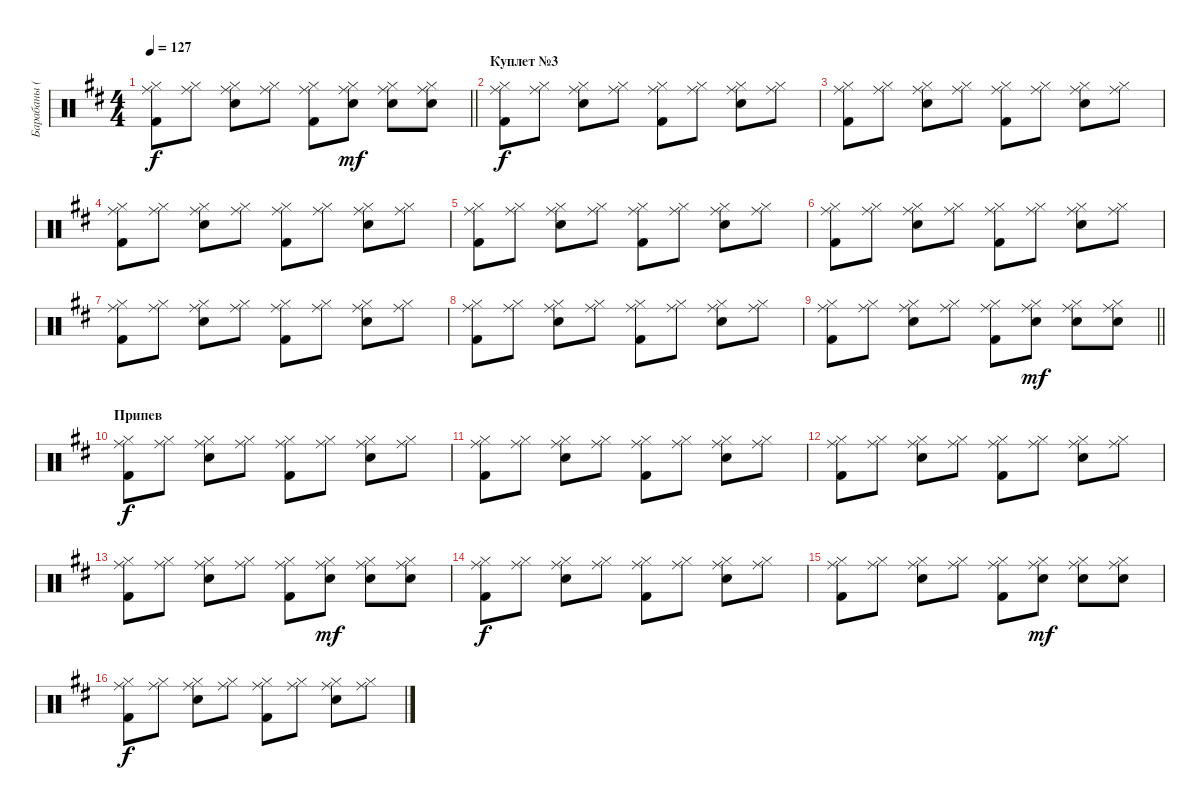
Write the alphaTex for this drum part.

\track ("Барабаны (Е.Летов)" "Барабаны (") {instrument percussion}
\staff {score}
\articulation defaults
\ts (4 4)
\tempo 127
\clef neutral
\barLineRight lightlight
\ks d
("Kick (hit) 2" "Ride (middle)" "Hi-Hat (closed)").8{dy f} ("Ride (middle)" "Hi-Hat (closed)").8 ("Snare (hit) 2" "Ride (middle)" "Hi-Hat (closed)").8 ("Ride (middle)" "Hi-Hat (closed)").8 ("Kick (hit) 2" "Ride (middle)" "Hi-Hat (closed)").8 ("Snare (hit) 2" "Ride (middle)" "Hi-Hat (closed)").8{dy mf} ("Snare (hit) 2" "Ride (middle)" "Hi-Hat (closed)").8 ("Snare (hit) 2" "Ride (middle)" "Hi-Hat (closed)").8 |
\section ("" "Куплет №3")
("Kick (hit) 2" "Ride (middle)" "Hi-Hat (closed)").8{dy f} ("Ride (middle)" "Hi-Hat (closed)").8 ("Snare (hit) 2" "Ride (middle)" "Hi-Hat (closed)").8 ("Ride (middle)" "Hi-Hat (closed)").8 ("Kick (hit) 2" "Ride (middle)" "Hi-Hat (closed)").8 ("Ride (middle)" "Hi-Hat (closed)").8 ("Snare (hit) 2" "Ride (middle)" "Hi-Hat (closed)").8 ("Ride (middle)" "Hi-Hat (closed)").8 |
("Kick (hit) 2" "Ride (middle)" "Hi-Hat (closed)").8 ("Ride (middle)" "Hi-Hat (closed)").8 ("Snare (hit) 2" "Ride (middle)" "Hi-Hat (closed)").8 ("Ride (middle)" "Hi-Hat (closed)").8 ("Kick (hit) 2" "Ride (middle)" "Hi-Hat (closed)").8 ("Ride (middle)" "Hi-Hat (closed)").8 ("Snare (hit) 2" "Ride (middle)" "Hi-Hat (closed)").8 ("Ride (middle)" "Hi-Hat (closed)").8 |
("Kick (hit) 2" "Ride (middle)" "Hi-Hat (closed)").8 ("Ride (middle)" "Hi-Hat (closed)").8 ("Snare (hit) 2" "Ride (middle)" "Hi-Hat (closed)").8 ("Ride (middle)" "Hi-Hat (closed)").8 ("Kick (hit) 2" "Ride (middle)" "Hi-Hat (closed)").8 ("Ride (middle)" "Hi-Hat (closed)").8 ("Snare (hit) 2" "Ride (middle)" "Hi-Hat (closed)").8 ("Ride (middle)" "Hi-Hat (closed)").8 |
("Kick (hit) 2" "Ride (middle)" "Hi-Hat (closed)").8 ("Ride (middle)" "Hi-Hat (closed)").8 ("Snare (hit) 2" "Ride (middle)" "Hi-Hat (closed)").8 ("Ride (middle)" "Hi-Hat (closed)").8 ("Kick (hit) 2" "Ride (middle)" "Hi-Hat (closed)").8 ("Ride (middle)" "Hi-Hat (closed)").8 ("Snare (hit) 2" "Ride (middle)" "Hi-Hat (closed)").8 ("Ride (middle)" "Hi-Hat (closed)").8 |
("Kick (hit) 2" "Ride (middle)" "Hi-Hat (closed)").8 ("Ride (middle)" "Hi-Hat (closed)").8 ("Snare (hit) 2" "Ride (middle)" "Hi-Hat (closed)").8 ("Ride (middle)" "Hi-Hat (closed)").8 ("Kick (hit) 2" "Ride (middle)" "Hi-Hat (closed)").8 ("Ride (middle)" "Hi-Hat (closed)").8 ("Snare (hit) 2" "Ride (middle)" "Hi-Hat (closed)").8 ("Ride (middle)" "Hi-Hat (closed)").8 |
("Kick (hit) 2" "Ride (middle)" "Hi-Hat (closed)").8 ("Ride (middle)" "Hi-Hat (closed)").8 ("Snare (hit) 2" "Ride (middle)" "Hi-Hat (closed)").8 ("Ride (middle)" "Hi-Hat (closed)").8 ("Kick (hit) 2" "Ride (middle)" "Hi-Hat (closed)").8 ("Ride (middle)" "Hi-Hat (closed)").8 ("Snare (hit) 2" "Ride (middle)" "Hi-Hat (closed)").8 ("Ride (middle)" "Hi-Hat (closed)").8 |
("Kick (hit) 2" "Ride (middle)" "Hi-Hat (closed)").8 ("Ride (middle)" "Hi-Hat (closed)").8 ("Snare (hit) 2" "Ride (middle)" "Hi-Hat (closed)").8 ("Ride (middle)" "Hi-Hat (closed)").8 ("Kick (hit) 2" "Ride (middle)" "Hi-Hat (closed)").8 ("Ride (middle)" "Hi-Hat (closed)").8 ("Snare (hit) 2" "Ride (middle)" "Hi-Hat (closed)").8 ("Ride (middle)" "Hi-Hat (closed)").8 |
\barLineRight lightlight
("Kick (hit) 2" "Ride (middle)" "Hi-Hat (closed)").8 ("Ride (middle)" "Hi-Hat (closed)").8 ("Snare (hit) 2" "Ride (middle)" "Hi-Hat (closed)").8 ("Ride (middle)" "Hi-Hat (closed)").8 ("Kick (hit) 2" "Ride (middle)" "Hi-Hat (closed)").8 ("Snare (hit) 2" "Ride (middle)" "Hi-Hat (closed)").8{dy mf} ("Snare (hit) 2" "Ride (middle)" "Hi-Hat (closed)").8 ("Snare (hit) 2" "Ride (middle)" "Hi-Hat (closed)").8 |
\section ("" "Припев")
("Kick (hit) 2" "Ride (middle)" "Hi-Hat (closed)").8{dy f} ("Ride (middle)" "Hi-Hat (closed)").8 ("Snare (hit) 2" "Ride (middle)" "Hi-Hat (closed)").8 ("Ride (middle)" "Hi-Hat (closed)").8 ("Kick (hit) 2" "Ride (middle)" "Hi-Hat (closed)").8 ("Ride (middle)" "Hi-Hat (closed)").8 ("Snare (hit) 2" "Ride (middle)" "Hi-Hat (closed)").8 ("Ride (middle)" "Hi-Hat (closed)").8 |
("Kick (hit) 2" "Ride (middle)" "Hi-Hat (closed)").8 ("Ride (middle)" "Hi-Hat (closed)").8 ("Snare (hit) 2" "Ride (middle)" "Hi-Hat (closed)").8 ("Ride (middle)" "Hi-Hat (closed)").8 ("Kick (hit) 2" "Ride (middle)" "Hi-Hat (closed)").8 ("Ride (middle)" "Hi-Hat (closed)").8 ("Snare (hit) 2" "Ride (middle)" "Hi-Hat (closed)").8 ("Ride (middle)" "Hi-Hat (closed)").8 |
("Kick (hit) 2" "Ride (middle)" "Hi-Hat (closed)").8 ("Ride (middle)" "Hi-Hat (closed)").8 ("Snare (hit) 2" "Ride (middle)" "Hi-Hat (closed)").8 ("Ride (middle)" "Hi-Hat (closed)").8 ("Kick (hit) 2" "Ride (middle)" "Hi-Hat (closed)").8 ("Ride (middle)" "Hi-Hat (closed)").8 ("Snare (hit) 2" "Ride (middle)" "Hi-Hat (closed)").8 ("Ride (middle)" "Hi-Hat (closed)").8 |
("Kick (hit) 2" "Ride (middle)" "Hi-Hat (closed)").8 ("Ride (middle)" "Hi-Hat (closed)").8 ("Snare (hit) 2" "Ride (middle)" "Hi-Hat (closed)").8 ("Ride (middle)" "Hi-Hat (closed)").8 ("Kick (hit) 2" "Ride (middle)" "Hi-Hat (closed)").8 ("Snare (hit) 2" "Ride (middle)" "Hi-Hat (closed)").8{dy mf} ("Snare (hit) 2" "Ride (middle)" "Hi-Hat (closed)").8 ("Snare (hit) 2" "Ride (middle)" "Hi-Hat (closed)").8 |
("Kick (hit) 2" "Ride (middle)" "Hi-Hat (closed)").8{dy f} ("Ride (middle)" "Hi-Hat (closed)").8 ("Snare (hit) 2" "Ride (middle)" "Hi-Hat (closed)").8 ("Ride (middle)" "Hi-Hat (closed)").8 ("Kick (hit) 2" "Ride (middle)" "Hi-Hat (closed)").8 ("Ride (middle)" "Hi-Hat (closed)").8 ("Snare (hit) 2" "Ride (middle)" "Hi-Hat (closed)").8 ("Ride (middle)" "Hi-Hat (closed)").8 |
("Kick (hit) 2" "Ride (middle)" "Hi-Hat (closed)").8 ("Ride (middle)" "Hi-Hat (closed)").8 ("Snare (hit) 2" "Ride (middle)" "Hi-Hat (closed)").8 ("Ride (middle)" "Hi-Hat (closed)").8 ("Kick (hit) 2" "Ride (middle)" "Hi-Hat (closed)").8 ("Snare (hit) 2" "Ride (middle)" "Hi-Hat (closed)").8{dy mf} ("Snare (hit) 2" "Ride (middle)" "Hi-Hat (closed)").8 ("Snare (hit) 2" "Ride (middle)" "Hi-Hat (closed)").8 |
("Kick (hit) 2" "Ride (middle)" "Hi-Hat (closed)").8{dy f} ("Ride (middle)" "Hi-Hat (closed)").8 ("Snare (hit) 2" "Ride (middle)" "Hi-Hat (closed)").8 ("Ride (middle)" "Hi-Hat (closed)").8 ("Kick (hit) 2" "Ride (middle)" "Hi-Hat (closed)").8 ("Ride (middle)" "Hi-Hat (closed)").8 ("Snare (hit) 2" "Ride (middle)" "Hi-Hat (closed)").8 ("Ride (middle)" "Hi-Hat (closed)").8
